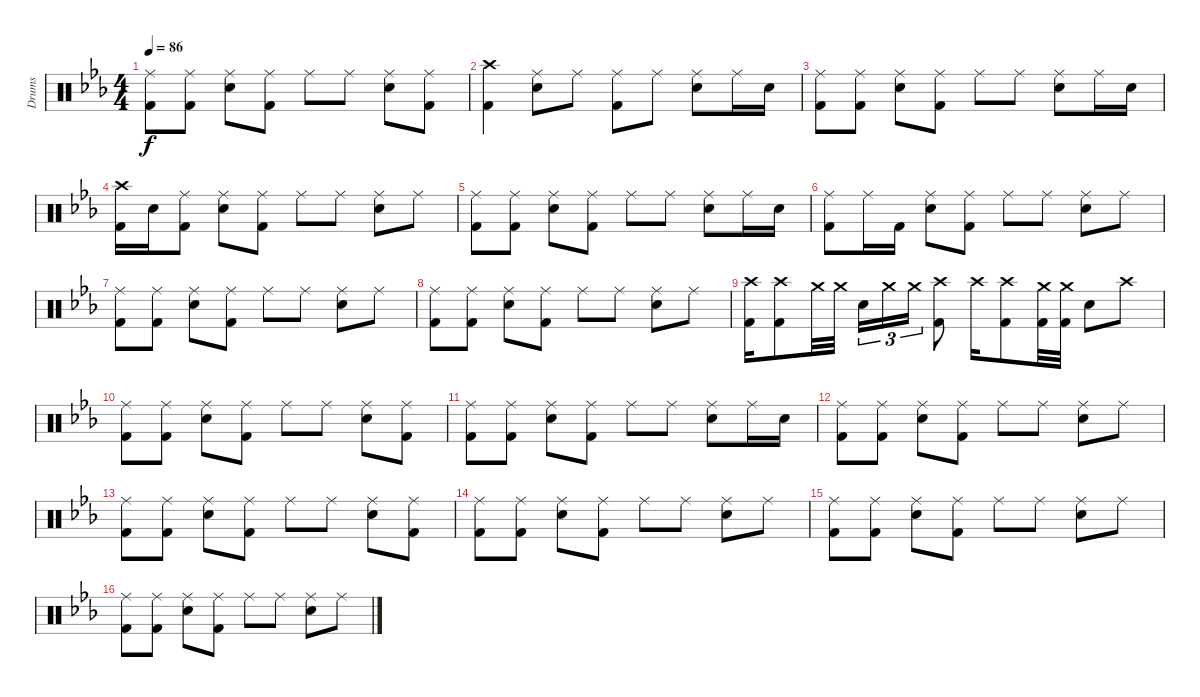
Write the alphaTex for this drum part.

\track ("Drums" "Drums") {instrument percussion}
\staff {score}
\articulation defaults
\ts (4 4)
\tempo 86
\clef neutral
\ks eb
("Ride (middle)" "Kick (hit) 2").8{dy f} ("Ride (middle)" "Kick (hit) 2").8 ("Ride (middle)" "Snare (hit) 2").8 ("Ride (middle)" "Kick (hit) 2").8 "Ride (middle)".8 "Ride (middle)".8 ("Ride (middle)" "Snare (hit) 2").8 ("Ride (middle)" "Kick (hit) 2").8 |
("Crash high (hit)" "Kick (hit) 2").4 ("Ride (middle)" "Snare (hit) 2").8 "Ride (middle)".8 ("Ride (middle)" "Kick (hit) 2").8 "Ride (middle)".8 ("Ride (middle)" "Snare (hit) 2").8 "Ride (middle)".16 "Snare (hit) 2".16 |
("Ride (middle)" "Kick (hit) 2").8 ("Ride (middle)" "Kick (hit) 2").8 ("Ride (middle)" "Snare (hit) 2").8 ("Ride (middle)" "Kick (hit) 2").8 "Ride (middle)".8 "Ride (middle)".8 ("Ride (middle)" "Snare (hit) 2").8 "Ride (middle)".16 "Snare (hit) 2".16 |
("Crash high (hit)" "Kick (hit) 2").16 "Snare (hit) 2".16 ("Ride (middle)" "Kick (hit) 2").8 ("Ride (middle)" "Snare (hit) 2").8 ("Ride (middle)" "Kick (hit) 2").8 "Ride (middle)".8 "Ride (middle)".8 ("Ride (middle)" "Snare (hit) 2").8 "Ride (middle)".8 |
("Ride (middle)" "Kick (hit) 2").8 ("Ride (middle)" "Kick (hit) 2").8 ("Ride (middle)" "Snare (hit) 2").8 ("Ride (middle)" "Kick (hit) 2").8 "Ride (middle)".8 "Ride (middle)".8 ("Ride (middle)" "Snare (hit) 2").8 "Ride (middle)".16 "Snare (hit) 2".16 |
("Ride (middle)" "Kick (hit) 2").8 "Ride (middle)".16 "Kick (hit) 2".16 ("Ride (middle)" "Snare (hit) 2").8 ("Ride (middle)" "Kick (hit) 2").8 "Ride (middle)".8 "Ride (middle)".8 ("Ride (middle)" "Snare (hit) 2").8 "Ride (middle)".8 |
("Ride (middle)" "Kick (hit) 2").8 ("Ride (middle)" "Kick (hit) 2").8 ("Ride (middle)" "Snare (hit) 2").8 ("Ride (middle)" "Kick (hit) 2").8 "Ride (middle)".8 "Ride (middle)".8 ("Ride (middle)" "Snare (hit) 2").8 "Ride (middle)".8 |
("Ride (middle)" "Kick (hit) 2").8 ("Ride (middle)" "Kick (hit) 2").8 ("Ride (middle)" "Snare (hit) 2").8 ("Ride (middle)" "Kick (hit) 2").8 "Ride (middle)".8 "Ride (middle)".8 ("Ride (middle)" "Snare (hit) 2").8 "Ride (middle)".8 |
("Crash high (hit)" "Kick (hit) 2").16 ("Crash high (hit)" "Kick (hit) 2").8 "Crash medium (hit)".32 "Crash medium (hit)".32 "Snare (hit) 2".16{tu (3 2)} "Crash medium (hit)".16{tu (3 2)} "Crash medium (hit)".16{tu (3 2)} ("Crash high (hit)" "Kick (hit) 2").8 "Crash high (hit)".16 ("Crash high (hit)" "Kick (hit) 2").8 ("Crash medium (hit)" "Kick (hit) 2").32 ("Crash medium (hit)" "Kick (hit) 2").32 "Snare (hit) 2".8 "Crash high (hit)".8 |
("Ride (middle)" "Kick (hit) 2").8 ("Ride (middle)" "Kick (hit) 2").8 ("Ride (middle)" "Snare (hit) 2").8 ("Ride (middle)" "Kick (hit) 2").8 "Ride (middle)".8 "Ride (middle)".8 ("Ride (middle)" "Snare (hit) 2").8 ("Ride (middle)" "Kick (hit) 2").8 |
("Ride (middle)" "Kick (hit) 2").8 ("Ride (middle)" "Kick (hit) 2").8 ("Ride (middle)" "Snare (hit) 2").8 ("Ride (middle)" "Kick (hit) 2").8 "Ride (middle)".8 "Ride (middle)".8 ("Ride (middle)" "Snare (hit) 2").8 "Ride (middle)".16 "Snare (hit) 2".16 |
("Ride (middle)" "Kick (hit) 2").8 ("Ride (middle)" "Kick (hit) 2").8 ("Ride (middle)" "Snare (hit) 2").8 ("Ride (middle)" "Kick (hit) 2").8 "Ride (middle)".8 "Ride (middle)".8 ("Ride (middle)" "Snare (hit) 2").8 "Ride (middle)".8 |
("Ride (middle)" "Kick (hit) 2").8 ("Ride (middle)" "Kick (hit) 2").8 ("Ride (middle)" "Snare (hit) 2").8 ("Ride (middle)" "Kick (hit) 2").8 "Ride (middle)".8 "Ride (middle)".8 ("Ride (middle)" "Snare (hit) 2").8 ("Ride (middle)" "Kick (hit) 2").8 |
("Ride (middle)" "Kick (hit) 2").8 ("Ride (middle)" "Kick (hit) 2").8 ("Ride (middle)" "Snare (hit) 2").8 ("Ride (middle)" "Kick (hit) 2").8 "Ride (middle)".8 "Ride (middle)".8 ("Ride (middle)" "Snare (hit) 2").8 "Ride (middle)".8 |
("Ride (middle)" "Kick (hit) 2").8 ("Ride (middle)" "Kick (hit) 2").8 ("Ride (middle)" "Snare (hit) 2").8 ("Ride (middle)" "Kick (hit) 2").8 "Ride (middle)".8 "Ride (middle)".8 ("Ride (middle)" "Snare (hit) 2").8 "Ride (middle)".8 |
("Ride (middle)" "Kick (hit) 2").8 ("Ride (middle)" "Kick (hit) 2").8 ("Ride (middle)" "Snare (hit) 2").8 ("Ride (middle)" "Kick (hit) 2").8 "Ride (middle)".8 "Ride (middle)".8 ("Ride (middle)" "Snare (hit) 2").8 "Ride (middle)".8
